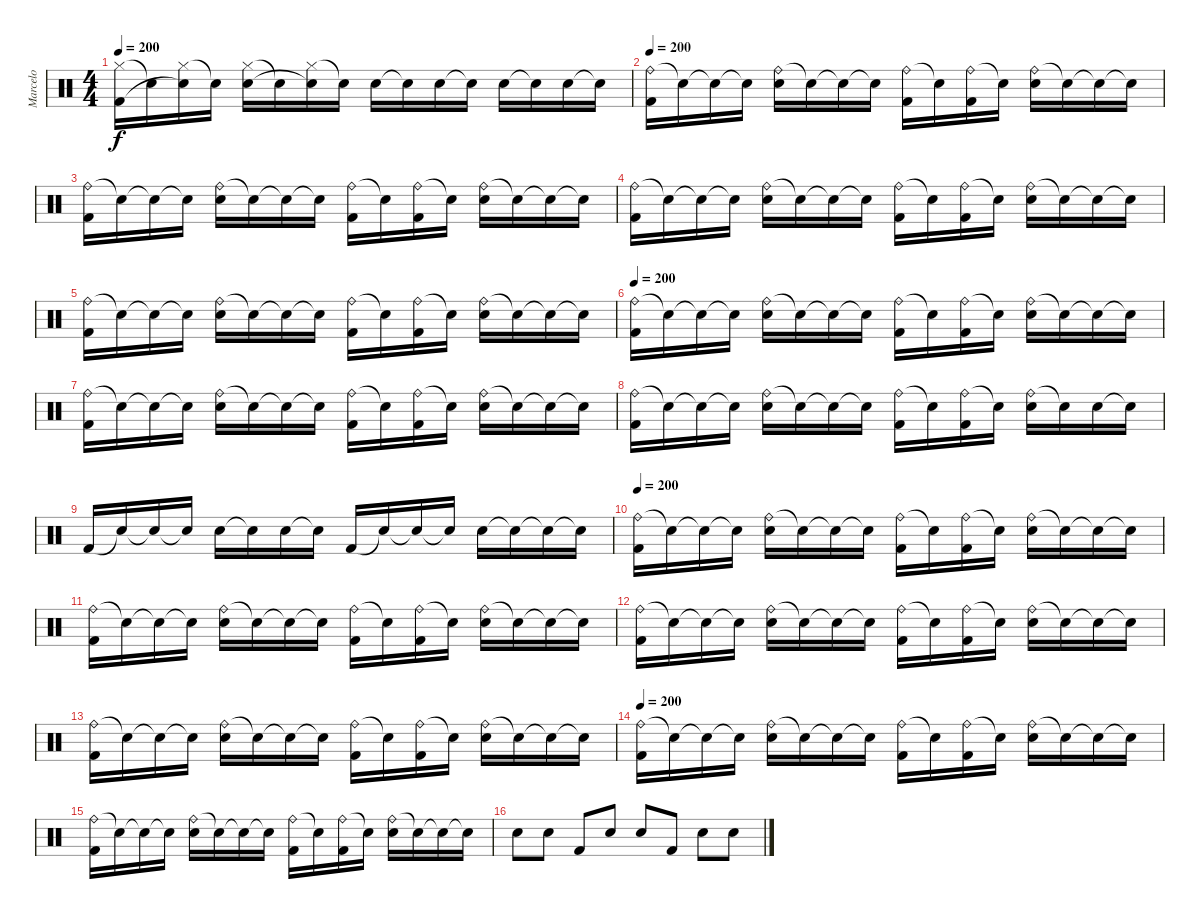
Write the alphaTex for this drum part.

\track ("Marcelo" "Marcelo") {instrument percussion}
\staff {score}
\articulation defaults
\ts (4 4)
\tempo 200
\clef neutral
\ks c
("Hi-Hat (closed)" "Kick (hit) 2").16{dy f} "Snare (hit)"{t}.16 ("Hi-Hat (closed)" "Snare (hit)"{t}).16 "Snare (hit)"{t}.16 ("Hi-Hat (closed)" "Snare (hit) 2").16 "Snare (hit)"{t}.16 ("Hi-Hat (closed)" "Snare (hit)"{t}).16 "Snare (hit)"{t}.16 "Snare (hit) 2".16 "Snare (hit)"{t}.16 "Snare (hit) 2".16 "Snare (hit)"{t}.16 "Snare (hit) 2".16 "Snare (hit)"{t}.16 "Snare (hit) 2".16 "Snare (hit)"{t}.16 |
\tempo 200
("Ride (bell)" "Kick (hit) 2").16 "Snare (hit)"{t}.16 "Snare (hit)"{t}.16 "Snare (hit) 2"{t}.16 ("Ride (bell)" "Snare (hit) 2").16 "Snare (hit)"{t}.16 "Snare (hit)"{t}.16 "Snare (hit)"{t}.16 ("Ride (bell)" "Kick (hit) 2").16 "Snare (hit)"{t}.16 ("Ride (bell)" "Kick (hit) 2").16 "Snare (hit) 2"{t}.16 ("Ride (bell)" "Snare (hit) 2").16 "Snare (hit)"{t}.16 "Snare (hit)"{t}.16 "Snare (hit)"{t}.16 |
("Ride (bell)" "Kick (hit) 2").16 "Snare (hit)"{t}.16 "Snare (hit)"{t}.16 "Snare (hit) 2"{t}.16 ("Ride (bell)" "Snare (hit) 2").16 "Snare (hit)"{t}.16 "Snare (hit)"{t}.16 "Snare (hit)"{t}.16 ("Ride (bell)" "Kick (hit) 2").16 "Snare (hit)"{t}.16 ("Ride (bell)" "Kick (hit) 2").16 "Snare (hit) 2"{t}.16 ("Ride (bell)" "Snare (hit) 2").16 "Snare (hit)"{t}.16 "Snare (hit)"{t}.16 "Snare (hit)"{t}.16 |
("Ride (bell)" "Kick (hit) 2").16 "Snare (hit)"{t}.16 "Snare (hit)"{t}.16 "Snare (hit) 2"{t}.16 ("Ride (bell)" "Snare (hit) 2").16 "Snare (hit)"{t}.16 "Snare (hit)"{t}.16 "Snare (hit)"{t}.16 ("Ride (bell)" "Kick (hit) 2").16 "Snare (hit)"{t}.16 ("Ride (bell)" "Kick (hit) 2").16 "Snare (hit) 2"{t}.16 ("Ride (bell)" "Snare (hit) 2").16 "Snare (hit)"{t}.16 "Snare (hit)"{t}.16 "Snare (hit)"{t}.16 |
("Ride (bell)" "Kick (hit) 2").16 "Snare (hit)"{t}.16 "Snare (hit)"{t}.16 "Snare (hit) 2"{t}.16 ("Ride (bell)" "Snare (hit) 2").16 "Snare (hit)"{t}.16 "Snare (hit)"{t}.16 "Snare (hit)"{t}.16 ("Ride (bell)" "Kick (hit) 2").16 "Snare (hit)"{t}.16 ("Ride (bell)" "Kick (hit) 2").16 "Snare (hit) 2"{t}.16 ("Ride (bell)" "Snare (hit) 2").16 "Snare (hit)"{t}.16 "Snare (hit)"{t}.16 "Snare (hit)"{t}.16 |
\tempo 200
("Ride (bell)" "Kick (hit) 2").16 "Snare (hit)"{t}.16 "Snare (hit)"{t}.16 "Snare (hit) 2"{t}.16 ("Ride (bell)" "Snare (hit) 2").16 "Snare (hit)"{t}.16 "Snare (hit)"{t}.16 "Snare (hit)"{t}.16 ("Ride (bell)" "Kick (hit) 2").16 "Snare (hit)"{t}.16 ("Ride (bell)" "Kick (hit) 2").16 "Snare (hit) 2"{t}.16 ("Ride (bell)" "Snare (hit) 2").16 "Snare (hit)"{t}.16 "Snare (hit)"{t}.16 "Snare (hit)"{t}.16 |
("Ride (bell)" "Kick (hit) 2").16 "Snare (hit)"{t}.16 "Snare (hit)"{t}.16 "Snare (hit) 2"{t}.16 ("Ride (bell)" "Snare (hit) 2").16 "Snare (hit)"{t}.16 "Snare (hit)"{t}.16 "Snare (hit)"{t}.16 ("Ride (bell)" "Kick (hit) 2").16 "Snare (hit)"{t}.16 ("Ride (bell)" "Kick (hit) 2").16 "Snare (hit) 2"{t}.16 ("Ride (bell)" "Snare (hit) 2").16 "Snare (hit)"{t}.16 "Snare (hit)"{t}.16 "Snare (hit)"{t}.16 |
("Ride (bell)" "Kick (hit) 2").16 "Snare (hit)"{t}.16 "Snare (hit)"{t}.16 "Snare (hit) 2"{t}.16 ("Ride (bell)" "Snare (hit) 2").16 "Snare (hit)"{t}.16 "Snare (hit)"{t}.16 "Snare (hit)"{t}.16 ("Ride (bell)" "Kick (hit) 2").16 "Snare (hit)"{t}.16 ("Ride (bell)" "Kick (hit) 2").16 "Snare (hit) 2"{t}.16 ("Ride (bell)" "Snare (hit) 2").16 "Snare (hit)"{t}.16 "Snare (hit) 2".16 "Snare (hit)"{t}.16 |
"Kick (hit) 2".16 "Snare (hit)"{t}.16 "Snare (hit) 2"{t}.16 "Snare (hit)"{t}.16 "Snare (hit) 2".16 "Snare (hit)"{t}.16 "Snare (hit) 2".16 "Snare (hit)"{t}.16 "Kick (hit) 2".16 "Snare (hit)"{t}.16 "Snare (hit)"{t}.16 "Snare (hit)"{t}.16 "Snare (hit) 2".16 "Snare (hit)"{t}.16 "Snare (hit)"{t}.16 "Snare (hit)"{t}.16 |
\tempo 200
("Ride (bell)" "Kick (hit) 2").16 "Snare (hit)"{t}.16 "Snare (hit)"{t}.16 "Snare (hit) 2"{t}.16 ("Ride (bell)" "Snare (hit) 2").16 "Snare (hit)"{t}.16 "Snare (hit)"{t}.16 "Snare (hit)"{t}.16 ("Ride (bell)" "Kick (hit) 2").16 "Snare (hit)"{t}.16 ("Ride (bell)" "Kick (hit) 2").16 "Snare (hit) 2"{t}.16 ("Ride (bell)" "Snare (hit) 2").16 "Snare (hit)"{t}.16 "Snare (hit)"{t}.16 "Snare (hit)"{t}.16 |
("Ride (bell)" "Kick (hit) 2").16 "Snare (hit)"{t}.16 "Snare (hit)"{t}.16 "Snare (hit) 2"{t}.16 ("Ride (bell)" "Snare (hit) 2").16 "Snare (hit)"{t}.16 "Snare (hit)"{t}.16 "Snare (hit)"{t}.16 ("Ride (bell)" "Kick (hit) 2").16 "Snare (hit)"{t}.16 ("Ride (bell)" "Kick (hit) 2").16 "Snare (hit) 2"{t}.16 ("Ride (bell)" "Snare (hit) 2").16 "Snare (hit)"{t}.16 "Snare (hit)"{t}.16 "Snare (hit)"{t}.16 |
("Ride (bell)" "Kick (hit) 2").16 "Snare (hit)"{t}.16 "Snare (hit)"{t}.16 "Snare (hit) 2"{t}.16 ("Ride (bell)" "Snare (hit) 2").16 "Snare (hit)"{t}.16 "Snare (hit)"{t}.16 "Snare (hit)"{t}.16 ("Ride (bell)" "Kick (hit) 2").16 "Snare (hit)"{t}.16 ("Ride (bell)" "Kick (hit) 2").16 "Snare (hit) 2"{t}.16 ("Ride (bell)" "Snare (hit) 2").16 "Snare (hit)"{t}.16 "Snare (hit)"{t}.16 "Snare (hit)"{t}.16 |
("Ride (bell)" "Kick (hit) 2").16 "Snare (hit)"{t}.16 "Snare (hit)"{t}.16 "Snare (hit) 2"{t}.16 ("Ride (bell)" "Snare (hit) 2").16 "Snare (hit)"{t}.16 "Snare (hit)"{t}.16 "Snare (hit)"{t}.16 ("Ride (bell)" "Kick (hit) 2").16 "Snare (hit)"{t}.16 ("Ride (bell)" "Kick (hit) 2").16 "Snare (hit) 2"{t}.16 ("Ride (bell)" "Snare (hit) 2").16 "Snare (hit)"{t}.16 "Snare (hit)"{t}.16 "Snare (hit)"{t}.16 |
\tempo 200
("Ride (bell)" "Kick (hit) 2").16 "Snare (hit)"{t}.16 "Snare (hit)"{t}.16 "Snare (hit) 2"{t}.16 ("Ride (bell)" "Snare (hit) 2").16 "Snare (hit)"{t}.16 "Snare (hit)"{t}.16 "Snare (hit)"{t}.16 ("Ride (bell)" "Kick (hit) 2").16 "Snare (hit)"{t}.16 ("Ride (bell)" "Kick (hit) 2").16 "Snare (hit) 2"{t}.16 ("Ride (bell)" "Snare (hit) 2").16 "Snare (hit)"{t}.16 "Snare (hit)"{t}.16 "Snare (hit)"{t}.16 |
("Ride (bell)" "Kick (hit) 2").16 "Snare (hit)"{t}.16 "Snare (hit)"{t}.16 "Snare (hit) 2"{t}.16 ("Ride (bell)" "Snare (hit) 2").16 "Snare (hit)"{t}.16 "Snare (hit)"{t}.16 "Snare (hit)"{t}.16 ("Ride (bell)" "Kick (hit) 2").16 "Snare (hit)"{t}.16 ("Ride (bell)" "Kick (hit) 2").16 "Snare (hit) 2"{t}.16 ("Ride (bell)" "Snare (hit) 2").16 "Snare (hit)"{t}.16 "Snare (hit)"{t}.16 "Snare (hit)"{t}.16 |
"Snare (hit) 2".8 "Snare (hit) 2".8 "Kick (hit) 2".8 "Snare (hit) 2".8 "Snare (hit) 2".8 "Kick (hit) 2".8 "Snare (hit) 2".8 "Snare (hit) 2".8
